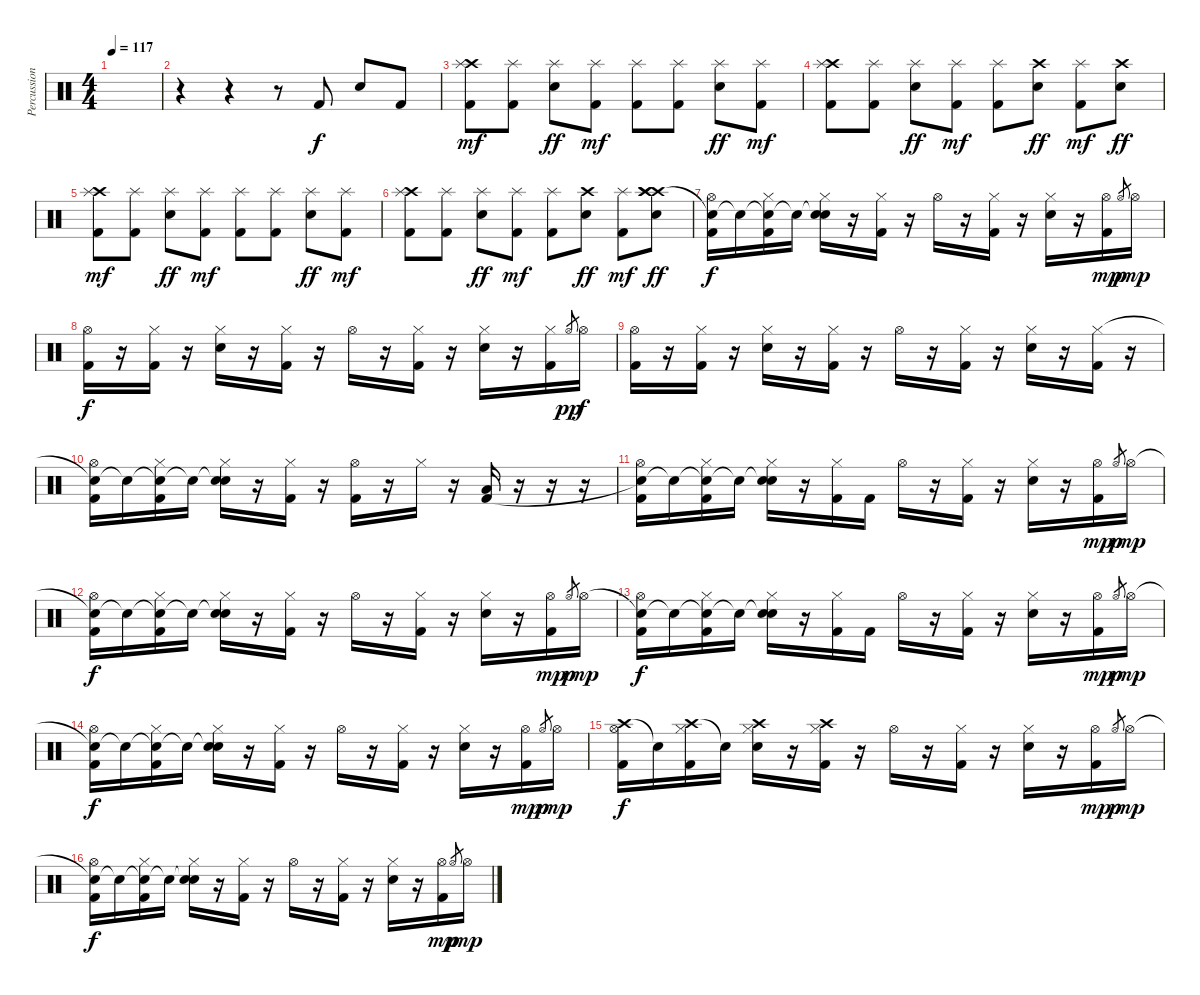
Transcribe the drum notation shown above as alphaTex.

\track ("Percussion" "Percussion") {instrument percussion}
\staff {score}
\articulation defaults
\ts (4 4)
\tempo 117
\clef neutral
\ks c
|
r.4 r.4 r.8 "Kick (hit) 2".8 "Electric Snare (hit)".8 "Kick (hit) 2".8 |
("Crash high (hit)" "Splash (hit)" "Kick (hit) 2").8{dy mf} ("Splash (hit)" "Kick (hit) 2").8 ("Splash (hit)" "Electric Snare (hit)").8{dy ff} ("Splash (hit)" "Kick (hit) 2").8{dy mf} ("Splash (hit)" "Kick (hit) 2").8 ("Splash (hit)" "Kick (hit) 2").8 ("Splash (hit)" "Electric Snare (hit)").8{dy ff} ("Splash (hit)" "Kick (hit) 2").8{dy mf} |
("Crash high (hit)" "Splash (hit)" "Kick (hit) 2").8 ("Splash (hit)" "Kick (hit) 2").8 ("Splash (hit)" "Electric Snare (hit)").8{dy ff} ("Splash (hit)" "Kick (hit) 2").8{dy mf} ("Splash (hit)" "Kick (hit) 2").8 ("Crash high (hit)" "Electric Snare (hit)").8{dy ff} ("Splash (hit)" "Kick (hit) 2").8{dy mf} ("Crash high (hit)" "Electric Snare (hit)").8{dy ff} |
("Crash high (hit)" "Splash (hit)" "Kick (hit) 2").8{dy mf} ("Splash (hit)" "Kick (hit) 2").8 ("Splash (hit)" "Electric Snare (hit)").8{dy ff} ("Splash (hit)" "Kick (hit) 2").8{dy mf} ("Splash (hit)" "Kick (hit) 2").8 ("Splash (hit)" "Kick (hit) 2").8 ("Splash (hit)" "Electric Snare (hit)").8{dy ff} ("Splash (hit)" "Kick (hit) 2").8{dy mf} |
("Crash high (hit)" "Splash (hit)" "Kick (hit) 2").8 ("Splash (hit)" "Kick (hit) 2").8 ("Splash (hit)" "Electric Snare (hit)").8{dy ff} ("Splash (hit)" "Kick (hit) 2").8{dy mf} ("Splash (hit)" "Kick (hit) 2").8 ("Crash high (hit)" "Electric Snare (hit)").8{dy ff} ("Splash (hit)" "Kick (hit) 2").8{dy mf} ("Crash high (hit)" "Crash high (hit)" "Crash high (hit)" "Electric Snare (hit)").8{dy ff} |
("Snare (hit)"{t} "Hi-Hat (open)" "Kick (hit) 2").16{dy f} "Snare (hit)"{t}.16 ("Snare (hit)"{t} "Hi-Hat (closed)" "Kick (hit) 2").16 "Snare (hit)"{t}.16 ("Snare (hit)"{t} "Hi-Hat (closed)" "Electric Snare (hit)").16 r.16 ("Hi-Hat (closed)" "Kick (hit) 2").16 r.16 "Hi-Hat (open)".16 r.16 ("Hi-Hat (closed)" "Kick (hit) 2").16 r.16 ("Hi-Hat (closed)" "Electric Snare (hit)").16 r.16 ("Hi-Hat (open)" "Kick (hit) 2").16{dy mp} "Hi-Hat (open)".8{gr dy p} "Hi-Hat (open)".16{dy mp} |
("Hi-Hat (open)" "Kick (hit) 2").16{dy f} r.16 ("Hi-Hat (closed)" "Kick (hit) 2").16 r.16 ("Hi-Hat (closed)" "Electric Snare (hit)").16 r.16 ("Hi-Hat (closed)" "Kick (hit) 2").16 r.16 "Hi-Hat (open)".16 r.16 ("Hi-Hat (closed)" "Kick (hit) 2").16 r.16 ("Hi-Hat (closed)" "Electric Snare (hit)").16 r.16 ("Hi-Hat (closed)" "Kick (hit) 2").16 "Hi-Hat (open)".8{gr dy pp} "Hi-Hat (open)".16{dy f} |
("Hi-Hat (open)" "Kick (hit) 2").16 r.16 ("Hi-Hat (closed)" "Kick (hit) 2").16 r.16 ("Hi-Hat (closed)" "Electric Snare (hit)").16 r.16 ("Hi-Hat (closed)" "Kick (hit) 2").16 r.16 "Hi-Hat (open)".16 r.16 ("Hi-Hat (closed)" "Kick (hit) 2").16 r.16 ("Hi-Hat (closed)" "Electric Snare (hit)").16 r.16 ("Hi-Hat (closed)" "Kick (hit) 2").16 r.16 |
("Snare (hit)"{t} "Hi-Hat (open)" "Kick (hit) 2").16 "Snare (hit)"{t}.16 ("Snare (hit)"{t} "Hi-Hat (closed)" "Kick (hit) 2").16 "Snare (hit)"{t}.16 ("Snare (hit)"{t} "Hi-Hat (closed)" "Electric Snare (hit)").16 r.16 ("Hi-Hat (closed)" "Kick (hit) 2").16 r.16 ("Hi-Hat (open)" "Kick (hit) 2").16 r.16 "Hi-Hat (closed)".16 r.16 ("Kick (hit) 2" "Low Floor Tom (hit)").16 r.16 r.16 r.16 |
("Snare (hit)"{t} "Hi-Hat (open)" "Kick (hit) 2").16 "Snare (hit)"{t}.16 ("Snare (hit)"{t} "Hi-Hat (closed)" "Kick (hit) 2").16 "Snare (hit)"{t}.16 ("Snare (hit)"{t} "Hi-Hat (closed)" "Electric Snare (hit)").16 r.16 ("Hi-Hat (closed)" "Kick (hit) 2").16 "Kick (hit) 2".16 "Hi-Hat (open)".16 r.16 ("Hi-Hat (closed)" "Kick (hit) 2").16 r.16 ("Hi-Hat (closed)" "Electric Snare (hit)").16 r.16 ("Hi-Hat (open)" "Kick (hit) 2").16{dy mp} "Hi-Hat (open)".8{gr dy p} "Hi-Hat (open)".16{dy mp} |
("Snare (hit)"{t} "Hi-Hat (open)" "Kick (hit) 2").16{dy f} "Snare (hit)"{t}.16 ("Snare (hit)"{t} "Hi-Hat (closed)" "Kick (hit) 2").16 "Snare (hit)"{t}.16 ("Snare (hit)"{t} "Hi-Hat (closed)" "Electric Snare (hit)").16 r.16 ("Hi-Hat (closed)" "Kick (hit) 2").16 r.16 "Hi-Hat (open)".16 r.16 ("Hi-Hat (closed)" "Kick (hit) 2").16 r.16 ("Hi-Hat (closed)" "Electric Snare (hit)").16 r.16 ("Hi-Hat (open)" "Kick (hit) 2").16{dy mp} "Hi-Hat (open)".8{gr dy p} "Hi-Hat (open)".16{dy mp} |
("Snare (hit)"{t} "Hi-Hat (open)" "Kick (hit) 2").16{dy f} "Snare (hit)"{t}.16 ("Snare (hit)"{t} "Hi-Hat (closed)" "Kick (hit) 2").16 "Snare (hit)"{t}.16 ("Snare (hit)"{t} "Hi-Hat (closed)" "Electric Snare (hit)").16 r.16 ("Hi-Hat (closed)" "Kick (hit) 2").16 "Kick (hit) 2".16 "Hi-Hat (open)".16 r.16 ("Hi-Hat (closed)" "Kick (hit) 2").16 r.16 ("Hi-Hat (closed)" "Electric Snare (hit)").16 r.16 ("Hi-Hat (open)" "Kick (hit) 2").16{dy mp} "Hi-Hat (open)".8{gr dy p} "Hi-Hat (open)".16{dy mp} |
("Snare (hit)"{t} "Hi-Hat (open)" "Kick (hit) 2").16{dy f} "Snare (hit)"{t}.16 ("Snare (hit)"{t} "Hi-Hat (closed)" "Kick (hit) 2").16 "Snare (hit)"{t}.16 ("Snare (hit)"{t} "Hi-Hat (closed)" "Electric Snare (hit)").16 r.16 ("Hi-Hat (closed)" "Kick (hit) 2").16 r.16 "Hi-Hat (open)".16 r.16 ("Hi-Hat (closed)" "Kick (hit) 2").16 r.16 ("Hi-Hat (closed)" "Electric Snare (hit)").16 r.16 ("Hi-Hat (open)" "Kick (hit) 2").16{dy mp} "Hi-Hat (open)".8{gr dy p} "Hi-Hat (open)".16{dy mp} |
("Crash high (hit)" "Hi-Hat (open)" "Kick (hit) 2").16{dy f} "Snare (hit)"{t}.16 ("Crash high (hit)" "Hi-Hat (closed)" "Kick (hit) 2").16 "Snare (hit)"{t}.16 ("Crash high (hit)" "Hi-Hat (closed)" "Electric Snare (hit)").16 r.16 ("Crash high (hit)" "Hi-Hat (closed)" "Kick (hit) 2").16 r.16 "Hi-Hat (open)".16 r.16 ("Hi-Hat (closed)" "Kick (hit) 2").16 r.16 ("Hi-Hat (closed)" "Electric Snare (hit)").16 r.16 ("Hi-Hat (open)" "Kick (hit) 2").16{dy mp} "Hi-Hat (open)".8{gr dy p} "Hi-Hat (open)".16{dy mp} |
("Snare (hit)"{t} "Hi-Hat (open)" "Kick (hit) 2").16{dy f} "Snare (hit)"{t}.16 ("Snare (hit)"{t} "Hi-Hat (closed)" "Kick (hit) 2").16 "Snare (hit)"{t}.16 ("Snare (hit)"{t} "Hi-Hat (closed)" "Electric Snare (hit)").16 r.16 ("Hi-Hat (closed)" "Kick (hit) 2").16 r.16 "Hi-Hat (open)".16 r.16 ("Hi-Hat (closed)" "Kick (hit) 2").16 r.16 ("Hi-Hat (closed)" "Electric Snare (hit)").16 r.16 ("Hi-Hat (open)" "Kick (hit) 2").16{dy mp} "Hi-Hat (open)".8{gr dy p} "Hi-Hat (open)".16{dy mp}
